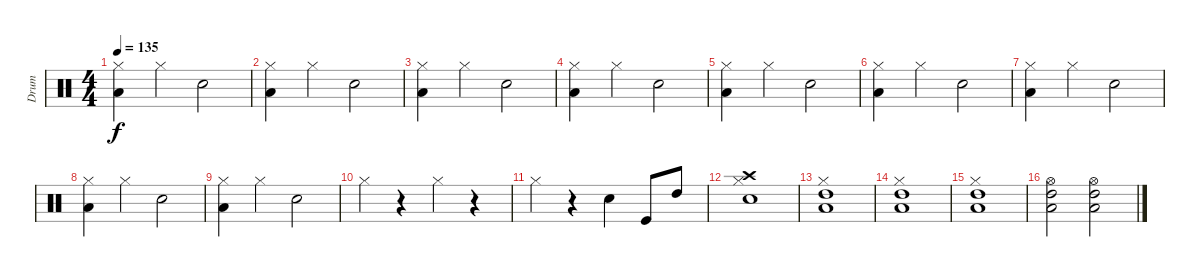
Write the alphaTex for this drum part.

\track ("Drum" "Drum") {instrument percussion}
\staff {score}
\articulation defaults
\ts (4 4)
\tempo 135
\clef neutral
\ks c
("Hi-Hat (closed)" "Low Tom (hit)").4{dy f} "Hi-Hat (closed)".4 "Snare (hit) 2".2 |
("Hi-Hat (closed)" "Low Tom (hit)").4 "Hi-Hat (closed)".4 "Snare (hit) 2".2 |
("Hi-Hat (closed)" "Low Tom (hit)").4 "Hi-Hat (closed)".4 "Snare (hit) 2".2 |
("Hi-Hat (closed)" "Low Tom (hit)").4 "Hi-Hat (closed)".4 "Snare (hit) 2".2 |
("Hi-Hat (closed)" "Low Tom (hit)").4 "Hi-Hat (closed)".4 "Snare (hit) 2".2 |
("Hi-Hat (closed)" "Low Tom (hit)").4 "Hi-Hat (closed)".4 "Snare (hit) 2".2 |
("Hi-Hat (closed)" "Low Tom (hit)").4 "Hi-Hat (closed)".4 "Snare (hit) 2".2 |
("Hi-Hat (closed)" "Low Tom (hit)").4 "Hi-Hat (closed)".4 "Snare (hit) 2".2 |
("Hi-Hat (closed)" "Low Tom (hit)").4 "Hi-Hat (closed)".4 "Snare (hit) 2".2 |
"Hi-Hat (closed)".4 r.4 "Hi-Hat (closed)".4 r.4 |
"Hi-Hat (closed)".4 r.4 "Snare (hit) 2".4 "Kick (hit)".8 "High Tom (hit)".8 |
("Crash high (hit)" "Snare (hit) 2" "Hi-Hat (closed)").1 |
("High Tom (hit)" "Hi-Hat (closed)" "Low Tom (hit)").1 |
("High Tom (hit)" "Hi-Hat (closed)" "Low Tom (hit)").1 |
("High Tom (hit)" "Hi-Hat (closed)" "Low Tom (hit)").1 |
("Hi-Hat (open)" "High Tom (hit)" "Low Tom (hit)").2 ("Hi-Hat (open)" "High Tom (hit)" "Low Tom (hit)").2
